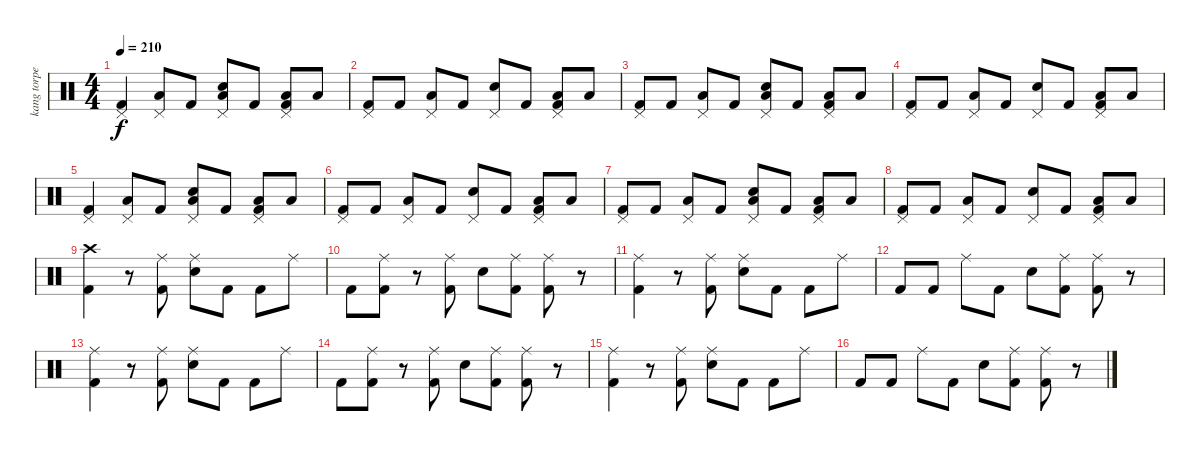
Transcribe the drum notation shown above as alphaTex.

\track ("kang torpey" "kang torpe") {instrument percussion}
\staff {score}
\articulation defaults
\ts (4 4)
\tempo 210
\clef neutral
\ks c
("Pedal Hi-Hat (hit)" "Kick (hit) 2").4{dy f} ("Pedal Hi-Hat (hit)" "Low Floor Tom (hit)").8 "Kick (hit) 2".8 ("Pedal Hi-Hat (hit)" "Low Floor Tom (hit)" "Electric Snare (hit)").8 "Kick (hit) 2".8 ("Pedal Hi-Hat (hit)" "Low Floor Tom (hit)" "Kick (hit) 2").8 "Low Floor Tom (hit)".8 |
("Pedal Hi-Hat (hit)" "Kick (hit) 2").8 "Kick (hit) 2".8 ("Pedal Hi-Hat (hit)" "Low Floor Tom (hit)").8 "Kick (hit) 2".8 ("Pedal Hi-Hat (hit)" "Electric Snare (hit)").8 "Kick (hit) 2".8 ("Pedal Hi-Hat (hit)" "Low Floor Tom (hit)" "Kick (hit) 2").8 "Low Floor Tom (hit)".8 |
("Pedal Hi-Hat (hit)" "Kick (hit) 2").8 "Kick (hit) 2".8 ("Pedal Hi-Hat (hit)" "Low Floor Tom (hit)").8 "Kick (hit) 2".8 ("Pedal Hi-Hat (hit)" "Low Floor Tom (hit)" "Electric Snare (hit)").8 "Kick (hit) 2".8 ("Pedal Hi-Hat (hit)" "Low Floor Tom (hit)" "Kick (hit) 2").8 "Low Floor Tom (hit)".8 |
("Pedal Hi-Hat (hit)" "Kick (hit) 2").8 "Kick (hit) 2".8 ("Pedal Hi-Hat (hit)" "Low Floor Tom (hit)").8 "Kick (hit) 2".8 ("Pedal Hi-Hat (hit)" "Electric Snare (hit)").8 "Kick (hit) 2".8 ("Pedal Hi-Hat (hit)" "Low Floor Tom (hit)" "Kick (hit) 2").8 "Low Floor Tom (hit)".8 |
("Pedal Hi-Hat (hit)" "Kick (hit) 2").4 ("Pedal Hi-Hat (hit)" "Low Floor Tom (hit)").8 "Kick (hit) 2".8 ("Pedal Hi-Hat (hit)" "Low Floor Tom (hit)" "Electric Snare (hit)").8 "Kick (hit) 2".8 ("Pedal Hi-Hat (hit)" "Low Floor Tom (hit)" "Kick (hit) 2").8 "Low Floor Tom (hit)".8 |
("Pedal Hi-Hat (hit)" "Kick (hit) 2").8 "Kick (hit) 2".8 ("Pedal Hi-Hat (hit)" "Low Floor Tom (hit)").8 "Kick (hit) 2".8 ("Pedal Hi-Hat (hit)" "Electric Snare (hit)").8 "Kick (hit) 2".8 ("Pedal Hi-Hat (hit)" "Low Floor Tom (hit)" "Kick (hit) 2").8 "Low Floor Tom (hit)".8 |
("Pedal Hi-Hat (hit)" "Kick (hit) 2").8 "Kick (hit) 2".8 ("Pedal Hi-Hat (hit)" "Low Floor Tom (hit)").8 "Kick (hit) 2".8 ("Pedal Hi-Hat (hit)" "Low Floor Tom (hit)" "Electric Snare (hit)").8 "Kick (hit) 2".8 ("Pedal Hi-Hat (hit)" "Low Floor Tom (hit)" "Kick (hit) 2").8 "Low Floor Tom (hit)".8 |
("Pedal Hi-Hat (hit)" "Kick (hit) 2").8 "Kick (hit) 2".8 ("Pedal Hi-Hat (hit)" "Low Floor Tom (hit)").8 "Kick (hit) 2".8 ("Pedal Hi-Hat (hit)" "Electric Snare (hit)").8 "Kick (hit) 2".8 ("Pedal Hi-Hat (hit)" "Low Floor Tom (hit)" "Kick (hit) 2").8 "Low Floor Tom (hit)".8 |
("Crash high (hit)" "Kick (hit) 2").4 r.8 ("Ride (middle)" "Kick (hit) 2").8 ("Ride (middle)" "Electric Snare (hit)").8 "Kick (hit) 2".8 "Kick (hit) 2".8 "Ride (middle)".8 |
"Kick (hit) 2".8 ("Ride (middle)" "Kick (hit) 2").8 r.8 ("Ride (middle)" "Kick (hit) 2").8 "Electric Snare (hit)".8 ("Ride (middle)" "Kick (hit) 2").8 ("Ride (middle)" "Kick (hit) 2").8 r.8 |
("Ride (middle)" "Kick (hit) 2").4 r.8 ("Ride (middle)" "Kick (hit) 2").8 ("Ride (middle)" "Electric Snare (hit)").8 "Kick (hit) 2".8 "Kick (hit) 2".8 "Ride (middle)".8 |
"Kick (hit) 2".8 "Kick (hit) 2".8 "Ride (middle)".8 "Kick (hit) 2".8 "Electric Snare (hit)".8 ("Ride (middle)" "Kick (hit) 2").8 ("Ride (middle)" "Kick (hit) 2").8 r.8 |
("Ride (middle)" "Kick (hit) 2").4 r.8 ("Ride (middle)" "Kick (hit) 2").8 ("Ride (middle)" "Electric Snare (hit)").8 "Kick (hit) 2".8 "Kick (hit) 2".8 "Ride (middle)".8 |
"Kick (hit) 2".8 ("Ride (middle)" "Kick (hit) 2").8 r.8 ("Ride (middle)" "Kick (hit) 2").8 "Electric Snare (hit)".8 ("Ride (middle)" "Kick (hit) 2").8 ("Ride (middle)" "Kick (hit) 2").8 r.8 |
("Ride (middle)" "Kick (hit) 2").4 r.8 ("Ride (middle)" "Kick (hit) 2").8 ("Ride (middle)" "Electric Snare (hit)").8 "Kick (hit) 2".8 "Kick (hit) 2".8 "Ride (middle)".8 |
"Kick (hit) 2".8 "Kick (hit) 2".8 "Ride (middle)".8 "Kick (hit) 2".8 "Electric Snare (hit)".8 ("Ride (middle)" "Kick (hit) 2").8 ("Ride (middle)" "Kick (hit) 2").8 r.8
